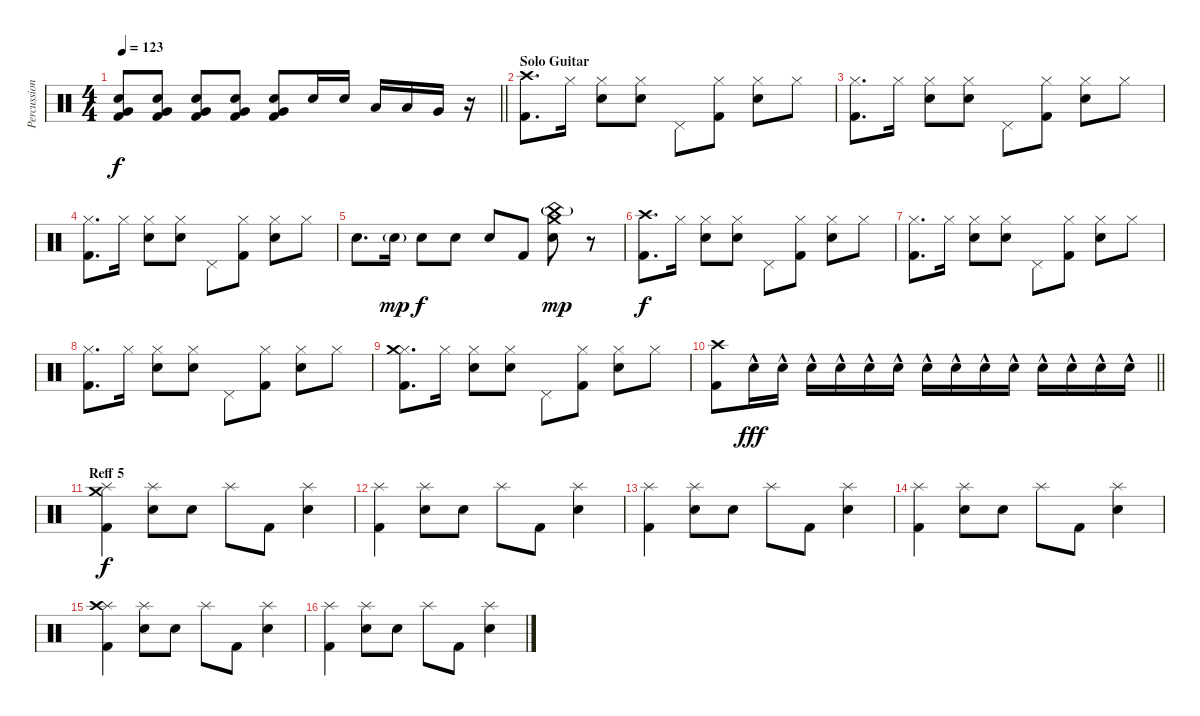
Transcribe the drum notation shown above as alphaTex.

\track ("Percussion 1" "Percussion") {instrument percussion}
\staff {score}
\articulation defaults
\ts (4 4)
\tempo 123
\clef neutral
\barLineRight lightlight
\ks c
("Electric Snare (hit)" "Very Low Tom (hit)" "Kick (hit) 2").8{dy f volume 9} ("Electric Snare (hit)" "Very Low Tom (hit)" "Kick (hit) 2").8{volume 13} ("Electric Snare (hit)" "Very Low Tom (hit)" "Kick (hit) 2").8 ("Electric Snare (hit)" "Very Low Tom (hit)" "Kick (hit) 2").8 ("Electric Snare (hit)" "Very Low Tom (hit)" "Kick (hit) 2").8 "Electric Snare (hit)".16 "Electric Snare (hit)".16 "Low Tom (hit)".16 "Low Tom (hit)".16 "Very Low Tom (hit)".16 r.16 |
\section ("" "Solo Guitar")
("Crash high (hit)" "Kick (hit) 2").8{d} "Hi-Hat (closed)".16 ("Hi-Hat (closed)" "Electric Snare (hit)").8 ("Hi-Hat (closed)" "Electric Snare (hit)").8 "Pedal Hi-Hat (hit)".8 ("Hi-Hat (closed)" "Kick (hit) 2").8 ("Hi-Hat (closed)" "Electric Snare (hit)").8 "Hi-Hat (closed)".8 |
("Hi-Hat (closed)" "Kick (hit) 2").8{d} "Hi-Hat (closed)".16 ("Hi-Hat (closed)" "Electric Snare (hit)").8 ("Hi-Hat (closed)" "Electric Snare (hit)").8 "Pedal Hi-Hat (hit)".8 ("Hi-Hat (closed)" "Kick (hit) 2").8 ("Hi-Hat (closed)" "Electric Snare (hit)").8 "Hi-Hat (closed)".8 |
("Hi-Hat (closed)" "Kick (hit) 2").8{d} "Hi-Hat (closed)".16 ("Hi-Hat (closed)" "Electric Snare (hit)").8 ("Hi-Hat (closed)" "Electric Snare (hit)").8 "Pedal Hi-Hat (hit)".8 ("Hi-Hat (closed)" "Kick (hit) 2").8 ("Hi-Hat (closed)" "Electric Snare (hit)").8 "Hi-Hat (closed)".8 |
"Electric Snare (hit)".8{d} "Electric Snare (hit)"{g}.16{dy mp} "Electric Snare (hit)".8{dy f} "Electric Snare (hit)".8 "Electric Snare (hit)".8 "Kick (hit) 2".8 ("Electric Snare (hit)" "Crash medium (hit)" "China (hit)"{g}).8{dy mp} r.8 |
("Crash high (hit)" "Kick (hit) 2").8{d dy f} "Hi-Hat (closed)".16 ("Hi-Hat (closed)" "Electric Snare (hit)").8 ("Hi-Hat (closed)" "Electric Snare (hit)").8 "Pedal Hi-Hat (hit)".8 ("Hi-Hat (closed)" "Kick (hit) 2").8 ("Hi-Hat (closed)" "Electric Snare (hit)").8 "Hi-Hat (closed)".8 |
("Hi-Hat (closed)" "Kick (hit) 2").8{d} "Hi-Hat (closed)".16 ("Hi-Hat (closed)" "Electric Snare (hit)").8 ("Hi-Hat (closed)" "Electric Snare (hit)").8 "Pedal Hi-Hat (hit)".8 ("Hi-Hat (closed)" "Kick (hit) 2").8 ("Hi-Hat (closed)" "Electric Snare (hit)").8 "Hi-Hat (closed)".8 |
("Hi-Hat (closed)" "Kick (hit) 2").8{d} "Hi-Hat (closed)".16 ("Hi-Hat (closed)" "Electric Snare (hit)").8 ("Hi-Hat (closed)" "Electric Snare (hit)").8 "Pedal Hi-Hat (hit)".8 ("Hi-Hat (closed)" "Kick (hit) 2").8 ("Hi-Hat (closed)" "Electric Snare (hit)").8 "Hi-Hat (closed)".8 |
("Hi-Hat (closed)" "Crash medium (hit)" "Kick (hit) 2").8{d} "Hi-Hat (closed)".16 ("Hi-Hat (closed)" "Electric Snare (hit)").8 ("Hi-Hat (closed)" "Electric Snare (hit)").8 "Pedal Hi-Hat (hit)".8 ("Hi-Hat (closed)" "Kick (hit) 2").8 ("Hi-Hat (closed)" "Electric Snare (hit)").8 "Hi-Hat (closed)".8 |
\barLineRight lightlight
("Crash high (hit)" "Kick (hit) 2").8 "Electric Snare (hit)"{hac}.16{dy fff volume 7} "Electric Snare (hit)"{hac}.16{volume 13} "Electric Snare (hit)"{hac}.16 "Electric Snare (hit)"{hac}.16 "Electric Snare (hit)"{hac}.16 "Electric Snare (hit)"{hac}.16 "Electric Snare (hit)"{hac}.16 "Electric Snare (hit)"{hac}.16 "Electric Snare (hit)"{hac}.16 "Electric Snare (hit)"{hac}.16 "Electric Snare (hit)"{hac}.16 "Electric Snare (hit)"{hac}.16 "Electric Snare (hit)"{hac}.16 "Electric Snare (hit)"{hac}.16 |
\section ("" "Reff 5")
("Splash (hit)" "Crash medium (hit)" "Kick (hit) 2").4{dy f} ("Splash (hit)" "Electric Snare (hit)").8 "Electric Snare (hit)".8 "Splash (hit)".8 "Kick (hit) 2".8 ("Splash (hit)" "Electric Snare (hit)").4 |
("Splash (hit)" "Kick (hit) 2").4 ("Splash (hit)" "Electric Snare (hit)").8 "Electric Snare (hit)".8 "Splash (hit)".8 "Kick (hit) 2".8 ("Splash (hit)" "Electric Snare (hit)").4 |
("Splash (hit)" "Kick (hit) 2").4 ("Splash (hit)" "Electric Snare (hit)").8 "Electric Snare (hit)".8 "Splash (hit)".8 "Kick (hit) 2".8 ("Splash (hit)" "Electric Snare (hit)").4 |
("Splash (hit)" "Kick (hit) 2").4 ("Splash (hit)" "Electric Snare (hit)").8 "Electric Snare (hit)".8 "Splash (hit)".8 "Kick (hit) 2".8 ("Splash (hit)" "Electric Snare (hit)").4 |
("Splash (hit)" "Crash high (hit)" "Kick (hit) 2").4 ("Splash (hit)" "Electric Snare (hit)").8 "Electric Snare (hit)".8 "Splash (hit)".8 "Kick (hit) 2".8 ("Splash (hit)" "Electric Snare (hit)").4 |
("Splash (hit)" "Kick (hit) 2").4 ("Splash (hit)" "Electric Snare (hit)").8 "Electric Snare (hit)".8 "Splash (hit)".8 "Kick (hit) 2".8 ("Splash (hit)" "Electric Snare (hit)").4
